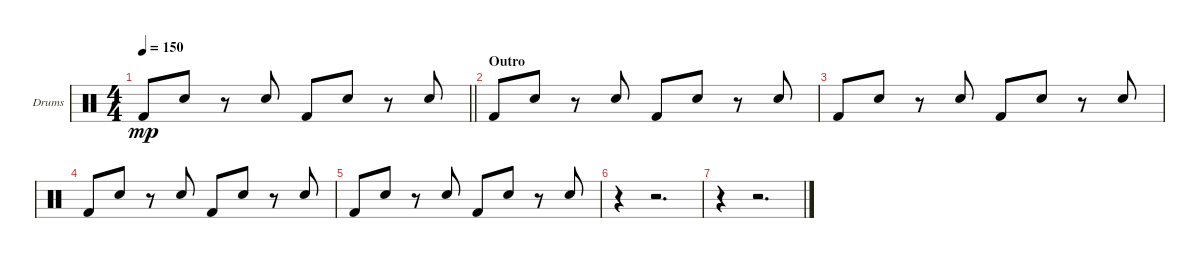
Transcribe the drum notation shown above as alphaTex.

\bracketExtendMode groupsimilarinstruments
\firstSystemTrackNameOrientation horizontal
\otherSystemsTrackNameOrientation horizontal
\track ("Drumkit" "Drums") {instrument percussion}
\staff {score}
\articulation defaults
\ts (4 4)
\tempo 150
\clef neutral
\barLineRight lightlight
\ks c "Kick (hit) 2".8{dy mp beam Up} "Snare (hit) 2".8{beam Up}
r.8{beam Up} "Snare (hit) 2".8{beam Down} "Kick (hit) 2".8{beam Up} "Snare (hit) 2".8{beam Up} r.8{beam Up} "Snare (hit) 2".8{beam Down} |
\section ("" "Outro")
"Kick (hit) 2".8{beam Up} "Snare (hit) 2".8{beam Up} r.8{beam Up} "Snare (hit) 2".8{beam Down} "Kick (hit) 2".8{beam Up} "Snare (hit) 2".8{beam Up} r.8{beam Up} "Snare (hit) 2".8{beam Down} |
"Kick (hit) 2".8{beam Up} "Snare (hit) 2".8{beam Up} r.8{beam Up} "Snare (hit) 2".8{beam Down} "Kick (hit) 2".8{beam Up} "Snare (hit) 2".8{beam Up} r.8{beam Up} "Snare (hit) 2".8{beam Down} |
"Kick (hit) 2".8{beam Up} "Snare (hit) 2".8{beam Up} r.8{beam Up} "Snare (hit) 2".8{beam Down} "Kick (hit) 2".8{beam Up} "Snare (hit) 2".8{beam Up} r.8{beam Up} "Snare (hit) 2".8{beam Down} |
"Kick (hit) 2".8{beam Up} "Snare (hit) 2".8{beam Up} r.8{beam Up} "Snare (hit) 2".8{beam Down} "Kick (hit) 2".8{beam Up} "Snare (hit) 2".8{beam Up} r.8{beam Up} "Snare (hit) 2".8{beam Down} |
r.4{beam Down} r.2{d beam Down} |
r.4{beam Down} r.2{d beam Down}
